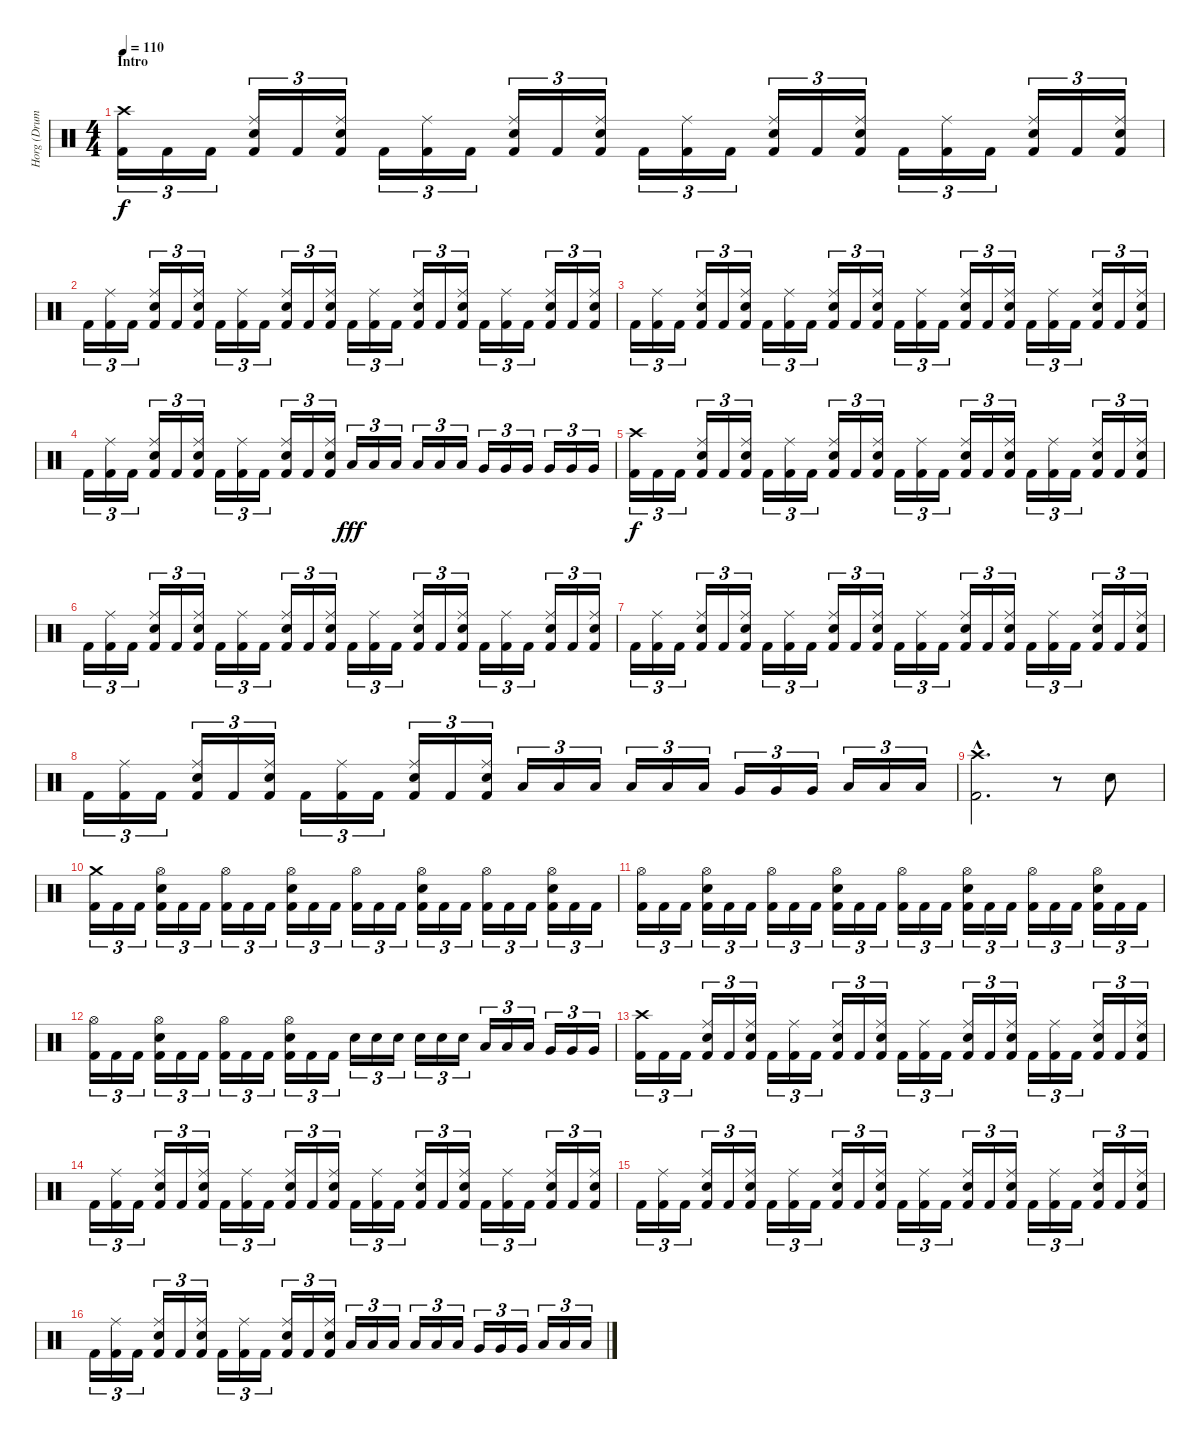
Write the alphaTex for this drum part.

\track ("Horg (Drums)" "Horg (Drum") {instrument percussion}
\staff {score}
\articulation defaults
\ts (4 4)
\section ("" "Intro")
\tempo 110
\clef neutral
\ks c
("Crash high (hit)" "Kick (hit) 2").16{tu (3 2) dy f} "Kick (hit) 2".16{tu (3 2)} "Kick (hit) 2".16{tu (3 2)} ("Ride (middle)" "Electric Snare (hit)" "Kick (hit) 2").16{tu (3 2)} "Kick (hit) 2".16{tu (3 2)} ("Ride (middle)" "Electric Snare (hit)" "Kick (hit) 2").16{tu (3 2)} "Kick (hit) 2".16{tu (3 2)} ("Ride (middle)" "Kick (hit) 2").16{tu (3 2)} "Kick (hit) 2".16{tu (3 2)} ("Ride (middle)" "Electric Snare (hit)" "Kick (hit) 2").16{tu (3 2)} "Kick (hit) 2".16{tu (3 2)} ("Ride (middle)" "Electric Snare (hit)" "Kick (hit) 2").16{tu (3 2)} "Kick (hit) 2".16{tu (3 2)} ("Ride (middle)" "Kick (hit) 2").16{tu (3 2)} "Kick (hit) 2".16{tu (3 2)} ("Ride (middle)" "Electric Snare (hit)" "Kick (hit) 2").16{tu (3 2)} "Kick (hit) 2".16{tu (3 2)} ("Ride (middle)" "Electric Snare (hit)" "Kick (hit) 2").16{tu (3 2)} "Kick (hit) 2".16{tu (3 2)} ("Ride (middle)" "Kick (hit) 2").16{tu (3 2)} "Kick (hit) 2".16{tu (3 2)} ("Ride (middle)" "Electric Snare (hit)" "Kick (hit) 2").16{tu (3 2)} "Kick (hit) 2".16{tu (3 2)} ("Ride (middle)" "Electric Snare (hit)" "Kick (hit) 2").16{tu (3 2)} |
"Kick (hit) 2".16{tu (3 2)} ("Ride (middle)" "Kick (hit) 2").16{tu (3 2)} "Kick (hit) 2".16{tu (3 2)} ("Ride (middle)" "Electric Snare (hit)" "Kick (hit) 2").16{tu (3 2)} "Kick (hit) 2".16{tu (3 2)} ("Ride (middle)" "Electric Snare (hit)" "Kick (hit) 2").16{tu (3 2)} "Kick (hit) 2".16{tu (3 2)} ("Ride (middle)" "Kick (hit) 2").16{tu (3 2)} "Kick (hit) 2".16{tu (3 2)} ("Ride (middle)" "Electric Snare (hit)" "Kick (hit) 2").16{tu (3 2)} "Kick (hit) 2".16{tu (3 2)} ("Ride (middle)" "Electric Snare (hit)" "Kick (hit) 2").16{tu (3 2)} "Kick (hit) 2".16{tu (3 2)} ("Ride (middle)" "Kick (hit) 2").16{tu (3 2)} "Kick (hit) 2".16{tu (3 2)} ("Ride (middle)" "Electric Snare (hit)" "Kick (hit) 2").16{tu (3 2)} "Kick (hit) 2".16{tu (3 2)} ("Ride (middle)" "Electric Snare (hit)" "Kick (hit) 2").16{tu (3 2)} "Kick (hit) 2".16{tu (3 2)} ("Ride (middle)" "Kick (hit) 2").16{tu (3 2)} "Kick (hit) 2".16{tu (3 2)} ("Ride (middle)" "Electric Snare (hit)" "Kick (hit) 2").16{tu (3 2)} "Kick (hit) 2".16{tu (3 2)} ("Ride (middle)" "Electric Snare (hit)" "Kick (hit) 2").16{tu (3 2)} |
"Kick (hit) 2".16{tu (3 2)} ("Ride (middle)" "Kick (hit) 2").16{tu (3 2)} "Kick (hit) 2".16{tu (3 2)} ("Ride (middle)" "Electric Snare (hit)" "Kick (hit) 2").16{tu (3 2)} "Kick (hit) 2".16{tu (3 2)} ("Ride (middle)" "Electric Snare (hit)" "Kick (hit) 2").16{tu (3 2)} "Kick (hit) 2".16{tu (3 2)} ("Ride (middle)" "Kick (hit) 2").16{tu (3 2)} "Kick (hit) 2".16{tu (3 2)} ("Ride (middle)" "Electric Snare (hit)" "Kick (hit) 2").16{tu (3 2)} "Kick (hit) 2".16{tu (3 2)} ("Ride (middle)" "Electric Snare (hit)" "Kick (hit) 2").16{tu (3 2)} "Kick (hit) 2".16{tu (3 2)} ("Ride (middle)" "Kick (hit) 2").16{tu (3 2)} "Kick (hit) 2".16{tu (3 2)} ("Ride (middle)" "Electric Snare (hit)" "Kick (hit) 2").16{tu (3 2)} "Kick (hit) 2".16{tu (3 2)} ("Ride (middle)" "Electric Snare (hit)" "Kick (hit) 2").16{tu (3 2)} "Kick (hit) 2".16{tu (3 2)} ("Ride (middle)" "Kick (hit) 2").16{tu (3 2)} "Kick (hit) 2".16{tu (3 2)} ("Ride (middle)" "Electric Snare (hit)" "Kick (hit) 2").16{tu (3 2)} "Kick (hit) 2".16{tu (3 2)} ("Ride (middle)" "Electric Snare (hit)" "Kick (hit) 2").16{tu (3 2)} |
"Kick (hit) 2".16{tu (3 2)} ("Ride (middle)" "Kick (hit) 2").16{tu (3 2)} "Kick (hit) 2".16{tu (3 2)} ("Ride (middle)" "Electric Snare (hit)" "Kick (hit) 2").16{tu (3 2)} "Kick (hit) 2".16{tu (3 2)} ("Ride (middle)" "Electric Snare (hit)" "Kick (hit) 2").16{tu (3 2)} "Kick (hit) 2".16{tu (3 2)} ("Ride (middle)" "Kick (hit) 2").16{tu (3 2)} "Kick (hit) 2".16{tu (3 2)} ("Ride (middle)" "Electric Snare (hit)" "Kick (hit) 2").16{tu (3 2)} "Kick (hit) 2".16{tu (3 2)} ("Ride (middle)" "Electric Snare (hit)" "Kick (hit) 2").16{tu (3 2)} "Low Tom (hit)".16{tu (3 2) dy fff} "Low Tom (hit)".16{tu (3 2)} "Low Tom (hit)".16{tu (3 2)} "Low Tom (hit)".16{tu (3 2)} "Low Tom (hit)".16{tu (3 2)} "Low Tom (hit)".16{tu (3 2)} "Very Low Tom (hit)".16{tu (3 2)} "Very Low Tom (hit)".16{tu (3 2)} "Very Low Tom (hit)".16{tu (3 2)} "Very Low Tom (hit)".16{tu (3 2)} "Very Low Tom (hit)".16{tu (3 2)} "Very Low Tom (hit)".16{tu (3 2)} |
("Crash high (hit)" "Kick (hit) 2").16{tu (3 2) dy f} "Kick (hit) 2".16{tu (3 2)} "Kick (hit) 2".16{tu (3 2)} ("Ride (middle)" "Electric Snare (hit)" "Kick (hit) 2").16{tu (3 2)} "Kick (hit) 2".16{tu (3 2)} ("Ride (middle)" "Electric Snare (hit)" "Kick (hit) 2").16{tu (3 2)} "Kick (hit) 2".16{tu (3 2)} ("Ride (middle)" "Kick (hit) 2").16{tu (3 2)} "Kick (hit) 2".16{tu (3 2)} ("Ride (middle)" "Electric Snare (hit)" "Kick (hit) 2").16{tu (3 2)} "Kick (hit) 2".16{tu (3 2)} ("Ride (middle)" "Electric Snare (hit)" "Kick (hit) 2").16{tu (3 2)} "Kick (hit) 2".16{tu (3 2)} ("Ride (middle)" "Kick (hit) 2").16{tu (3 2)} "Kick (hit) 2".16{tu (3 2)} ("Ride (middle)" "Electric Snare (hit)" "Kick (hit) 2").16{tu (3 2)} "Kick (hit) 2".16{tu (3 2)} ("Ride (middle)" "Electric Snare (hit)" "Kick (hit) 2").16{tu (3 2)} "Kick (hit) 2".16{tu (3 2)} ("Ride (middle)" "Kick (hit) 2").16{tu (3 2)} "Kick (hit) 2".16{tu (3 2)} ("Ride (middle)" "Electric Snare (hit)" "Kick (hit) 2").16{tu (3 2)} "Kick (hit) 2".16{tu (3 2)} ("Ride (middle)" "Electric Snare (hit)" "Kick (hit) 2").16{tu (3 2)} |
"Kick (hit) 2".16{tu (3 2)} ("Ride (middle)" "Kick (hit) 2").16{tu (3 2)} "Kick (hit) 2".16{tu (3 2)} ("Ride (middle)" "Electric Snare (hit)" "Kick (hit) 2").16{tu (3 2)} "Kick (hit) 2".16{tu (3 2)} ("Ride (middle)" "Electric Snare (hit)" "Kick (hit) 2").16{tu (3 2)} "Kick (hit) 2".16{tu (3 2)} ("Ride (middle)" "Kick (hit) 2").16{tu (3 2)} "Kick (hit) 2".16{tu (3 2)} ("Ride (middle)" "Electric Snare (hit)" "Kick (hit) 2").16{tu (3 2)} "Kick (hit) 2".16{tu (3 2)} ("Ride (middle)" "Electric Snare (hit)" "Kick (hit) 2").16{tu (3 2)} "Kick (hit) 2".16{tu (3 2)} ("Ride (middle)" "Kick (hit) 2").16{tu (3 2)} "Kick (hit) 2".16{tu (3 2)} ("Ride (middle)" "Electric Snare (hit)" "Kick (hit) 2").16{tu (3 2)} "Kick (hit) 2".16{tu (3 2)} ("Ride (middle)" "Electric Snare (hit)" "Kick (hit) 2").16{tu (3 2)} "Kick (hit) 2".16{tu (3 2)} ("Ride (middle)" "Kick (hit) 2").16{tu (3 2)} "Kick (hit) 2".16{tu (3 2)} ("Ride (middle)" "Electric Snare (hit)" "Kick (hit) 2").16{tu (3 2)} "Kick (hit) 2".16{tu (3 2)} ("Ride (middle)" "Electric Snare (hit)" "Kick (hit) 2").16{tu (3 2)} |
"Kick (hit) 2".16{tu (3 2)} ("Ride (middle)" "Kick (hit) 2").16{tu (3 2)} "Kick (hit) 2".16{tu (3 2)} ("Ride (middle)" "Electric Snare (hit)" "Kick (hit) 2").16{tu (3 2)} "Kick (hit) 2".16{tu (3 2)} ("Ride (middle)" "Electric Snare (hit)" "Kick (hit) 2").16{tu (3 2)} "Kick (hit) 2".16{tu (3 2)} ("Ride (middle)" "Kick (hit) 2").16{tu (3 2)} "Kick (hit) 2".16{tu (3 2)} ("Ride (middle)" "Electric Snare (hit)" "Kick (hit) 2").16{tu (3 2)} "Kick (hit) 2".16{tu (3 2)} ("Ride (middle)" "Electric Snare (hit)" "Kick (hit) 2").16{tu (3 2)} "Kick (hit) 2".16{tu (3 2)} ("Ride (middle)" "Kick (hit) 2").16{tu (3 2)} "Kick (hit) 2".16{tu (3 2)} ("Ride (middle)" "Electric Snare (hit)" "Kick (hit) 2").16{tu (3 2)} "Kick (hit) 2".16{tu (3 2)} ("Ride (middle)" "Electric Snare (hit)" "Kick (hit) 2").16{tu (3 2)} "Kick (hit) 2".16{tu (3 2)} ("Ride (middle)" "Kick (hit) 2").16{tu (3 2)} "Kick (hit) 2".16{tu (3 2)} ("Ride (middle)" "Electric Snare (hit)" "Kick (hit) 2").16{tu (3 2)} "Kick (hit) 2".16{tu (3 2)} ("Ride (middle)" "Electric Snare (hit)" "Kick (hit) 2").16{tu (3 2)} |
"Kick (hit) 2".16{tu (3 2)} ("Ride (middle)" "Kick (hit) 2").16{tu (3 2)} "Kick (hit) 2".16{tu (3 2)} ("Ride (middle)" "Electric Snare (hit)" "Kick (hit) 2").16{tu (3 2)} "Kick (hit) 2".16{tu (3 2)} ("Ride (middle)" "Electric Snare (hit)" "Kick (hit) 2").16{tu (3 2)} "Kick (hit) 2".16{tu (3 2)} ("Ride (middle)" "Kick (hit) 2").16{tu (3 2)} "Kick (hit) 2".16{tu (3 2)} ("Ride (middle)" "Electric Snare (hit)" "Kick (hit) 2").16{tu (3 2)} "Kick (hit) 2".16{tu (3 2)} ("Ride (middle)" "Electric Snare (hit)" "Kick (hit) 2").16{tu (3 2)} "Low Tom (hit)".16{tu (3 2)} "Low Tom (hit)".16{tu (3 2)} "Low Tom (hit)".16{tu (3 2)} "Low Tom (hit)".16{tu (3 2)} "Low Tom (hit)".16{tu (3 2)} "Low Tom (hit)".16{tu (3 2)} "Very Low Tom (hit)".16{tu (3 2)} "Very Low Tom (hit)".16{tu (3 2)} "Very Low Tom (hit)".16{tu (3 2)} "Low Floor Tom (hit)".16{tu (3 2)} "Low Floor Tom (hit)".16{tu (3 2)} "Low Floor Tom (hit)".16{tu (3 2)} |
("Crash high (hit)"{hac} "Kick (hit) 2"{hac}).2{d} r.8 "Electric Snare (hit)".8 |
("Crash medium (hit)" "Kick (hit) 2").16{tu (3 2)} "Kick (hit) 2".16{tu (3 2)} "Kick (hit) 2".16{tu (3 2)} ("Hi-Hat (open)" "Electric Snare (hit)" "Kick (hit) 2").16{tu (3 2)} "Kick (hit) 2".16{tu (3 2)} "Kick (hit) 2".16{tu (3 2)} ("Hi-Hat (open)" "Kick (hit) 2").16{tu (3 2)} "Kick (hit) 2".16{tu (3 2)} "Kick (hit) 2".16{tu (3 2)} ("Hi-Hat (open)" "Electric Snare (hit)" "Kick (hit) 2").16{tu (3 2)} "Kick (hit) 2".16{tu (3 2)} "Kick (hit) 2".16{tu (3 2)} ("Hi-Hat (open)" "Kick (hit) 2").16{tu (3 2)} "Kick (hit) 2".16{tu (3 2)} "Kick (hit) 2".16{tu (3 2)} ("Hi-Hat (open)" "Electric Snare (hit)" "Kick (hit) 2").16{tu (3 2)} "Kick (hit) 2".16{tu (3 2)} "Kick (hit) 2".16{tu (3 2)} ("Hi-Hat (open)" "Kick (hit) 2").16{tu (3 2)} "Kick (hit) 2".16{tu (3 2)} "Kick (hit) 2".16{tu (3 2)} ("Hi-Hat (open)" "Electric Snare (hit)" "Kick (hit) 2").16{tu (3 2)} "Kick (hit) 2".16{tu (3 2)} "Kick (hit) 2".16{tu (3 2)} |
("Hi-Hat (open)" "Kick (hit) 2").16{tu (3 2)} "Kick (hit) 2".16{tu (3 2)} "Kick (hit) 2".16{tu (3 2)} ("Hi-Hat (open)" "Electric Snare (hit)" "Kick (hit) 2").16{tu (3 2)} "Kick (hit) 2".16{tu (3 2)} "Kick (hit) 2".16{tu (3 2)} ("Hi-Hat (open)" "Kick (hit) 2").16{tu (3 2)} "Kick (hit) 2".16{tu (3 2)} "Kick (hit) 2".16{tu (3 2)} ("Hi-Hat (open)" "Electric Snare (hit)" "Kick (hit) 2").16{tu (3 2)} "Kick (hit) 2".16{tu (3 2)} "Kick (hit) 2".16{tu (3 2)} ("Hi-Hat (open)" "Kick (hit) 2").16{tu (3 2)} "Kick (hit) 2".16{tu (3 2)} "Kick (hit) 2".16{tu (3 2)} ("Hi-Hat (open)" "Electric Snare (hit)" "Kick (hit) 2").16{tu (3 2)} "Kick (hit) 2".16{tu (3 2)} "Kick (hit) 2".16{tu (3 2)} ("Hi-Hat (open)" "Kick (hit) 2").16{tu (3 2)} "Kick (hit) 2".16{tu (3 2)} "Kick (hit) 2".16{tu (3 2)} ("Hi-Hat (open)" "Electric Snare (hit)" "Kick (hit) 2").16{tu (3 2)} "Kick (hit) 2".16{tu (3 2)} "Kick (hit) 2".16{tu (3 2)} |
("Hi-Hat (open)" "Kick (hit) 2").16{tu (3 2)} "Kick (hit) 2".16{tu (3 2)} "Kick (hit) 2".16{tu (3 2)} ("Hi-Hat (open)" "Electric Snare (hit)" "Kick (hit) 2").16{tu (3 2)} "Kick (hit) 2".16{tu (3 2)} "Kick (hit) 2".16{tu (3 2)} ("Hi-Hat (open)" "Kick (hit) 2").16{tu (3 2)} "Kick (hit) 2".16{tu (3 2)} "Kick (hit) 2".16{tu (3 2)} ("Hi-Hat (open)" "Electric Snare (hit)" "Kick (hit) 2").16{tu (3 2)} "Kick (hit) 2".16{tu (3 2)} "Kick (hit) 2".16{tu (3 2)} "Electric Snare (hit)".16{tu (3 2)} "Electric Snare (hit)".16{tu (3 2)} "Electric Snare (hit)".16{tu (3 2)} "Electric Snare (hit)".16{tu (3 2)} "Electric Snare (hit)".16{tu (3 2)} "Electric Snare (hit)".16{tu (3 2)} "Low Tom (hit)".16{tu (3 2)} "Low Tom (hit)".16{tu (3 2)} "Low Tom (hit)".16{tu (3 2)} "Very Low Tom (hit)".16{tu (3 2)} "Very Low Tom (hit)".16{tu (3 2)} "Very Low Tom (hit)".16{tu (3 2)} |
("Crash high (hit)" "Kick (hit) 2").16{tu (3 2)} "Kick (hit) 2".16{tu (3 2)} "Kick (hit) 2".16{tu (3 2)} ("Ride (middle)" "Electric Snare (hit)" "Kick (hit) 2").16{tu (3 2)} "Kick (hit) 2".16{tu (3 2)} ("Ride (middle)" "Electric Snare (hit)" "Kick (hit) 2").16{tu (3 2)} "Kick (hit) 2".16{tu (3 2)} ("Ride (middle)" "Kick (hit) 2").16{tu (3 2)} "Kick (hit) 2".16{tu (3 2)} ("Ride (middle)" "Electric Snare (hit)" "Kick (hit) 2").16{tu (3 2)} "Kick (hit) 2".16{tu (3 2)} ("Ride (middle)" "Electric Snare (hit)" "Kick (hit) 2").16{tu (3 2)} "Kick (hit) 2".16{tu (3 2)} ("Ride (middle)" "Kick (hit) 2").16{tu (3 2)} "Kick (hit) 2".16{tu (3 2)} ("Ride (middle)" "Electric Snare (hit)" "Kick (hit) 2").16{tu (3 2)} "Kick (hit) 2".16{tu (3 2)} ("Ride (middle)" "Electric Snare (hit)" "Kick (hit) 2").16{tu (3 2)} "Kick (hit) 2".16{tu (3 2)} ("Ride (middle)" "Kick (hit) 2").16{tu (3 2)} "Kick (hit) 2".16{tu (3 2)} ("Ride (middle)" "Electric Snare (hit)" "Kick (hit) 2").16{tu (3 2)} "Kick (hit) 2".16{tu (3 2)} ("Ride (middle)" "Electric Snare (hit)" "Kick (hit) 2").16{tu (3 2)} |
"Kick (hit) 2".16{tu (3 2)} ("Ride (middle)" "Kick (hit) 2").16{tu (3 2)} "Kick (hit) 2".16{tu (3 2)} ("Ride (middle)" "Electric Snare (hit)" "Kick (hit) 2").16{tu (3 2)} "Kick (hit) 2".16{tu (3 2)} ("Ride (middle)" "Electric Snare (hit)" "Kick (hit) 2").16{tu (3 2)} "Kick (hit) 2".16{tu (3 2)} ("Ride (middle)" "Kick (hit) 2").16{tu (3 2)} "Kick (hit) 2".16{tu (3 2)} ("Ride (middle)" "Electric Snare (hit)" "Kick (hit) 2").16{tu (3 2)} "Kick (hit) 2".16{tu (3 2)} ("Ride (middle)" "Electric Snare (hit)" "Kick (hit) 2").16{tu (3 2)} "Kick (hit) 2".16{tu (3 2)} ("Ride (middle)" "Kick (hit) 2").16{tu (3 2)} "Kick (hit) 2".16{tu (3 2)} ("Ride (middle)" "Electric Snare (hit)" "Kick (hit) 2").16{tu (3 2)} "Kick (hit) 2".16{tu (3 2)} ("Ride (middle)" "Electric Snare (hit)" "Kick (hit) 2").16{tu (3 2)} "Kick (hit) 2".16{tu (3 2)} ("Ride (middle)" "Kick (hit) 2").16{tu (3 2)} "Kick (hit) 2".16{tu (3 2)} ("Ride (middle)" "Electric Snare (hit)" "Kick (hit) 2").16{tu (3 2)} "Kick (hit) 2".16{tu (3 2)} ("Ride (middle)" "Electric Snare (hit)" "Kick (hit) 2").16{tu (3 2)} |
"Kick (hit) 2".16{tu (3 2)} ("Ride (middle)" "Kick (hit) 2").16{tu (3 2)} "Kick (hit) 2".16{tu (3 2)} ("Ride (middle)" "Electric Snare (hit)" "Kick (hit) 2").16{tu (3 2)} "Kick (hit) 2".16{tu (3 2)} ("Ride (middle)" "Electric Snare (hit)" "Kick (hit) 2").16{tu (3 2)} "Kick (hit) 2".16{tu (3 2)} ("Ride (middle)" "Kick (hit) 2").16{tu (3 2)} "Kick (hit) 2".16{tu (3 2)} ("Ride (middle)" "Electric Snare (hit)" "Kick (hit) 2").16{tu (3 2)} "Kick (hit) 2".16{tu (3 2)} ("Ride (middle)" "Electric Snare (hit)" "Kick (hit) 2").16{tu (3 2)} "Kick (hit) 2".16{tu (3 2)} ("Ride (middle)" "Kick (hit) 2").16{tu (3 2)} "Kick (hit) 2".16{tu (3 2)} ("Ride (middle)" "Electric Snare (hit)" "Kick (hit) 2").16{tu (3 2)} "Kick (hit) 2".16{tu (3 2)} ("Ride (middle)" "Electric Snare (hit)" "Kick (hit) 2").16{tu (3 2)} "Kick (hit) 2".16{tu (3 2)} ("Ride (middle)" "Kick (hit) 2").16{tu (3 2)} "Kick (hit) 2".16{tu (3 2)} ("Ride (middle)" "Electric Snare (hit)" "Kick (hit) 2").16{tu (3 2)} "Kick (hit) 2".16{tu (3 2)} ("Ride (middle)" "Electric Snare (hit)" "Kick (hit) 2").16{tu (3 2)} |
"Kick (hit) 2".16{tu (3 2)} ("Ride (middle)" "Kick (hit) 2").16{tu (3 2)} "Kick (hit) 2".16{tu (3 2)} ("Ride (middle)" "Electric Snare (hit)" "Kick (hit) 2").16{tu (3 2)} "Kick (hit) 2".16{tu (3 2)} ("Ride (middle)" "Electric Snare (hit)" "Kick (hit) 2").16{tu (3 2)} "Kick (hit) 2".16{tu (3 2)} ("Ride (middle)" "Kick (hit) 2").16{tu (3 2)} "Kick (hit) 2".16{tu (3 2)} ("Ride (middle)" "Electric Snare (hit)" "Kick (hit) 2").16{tu (3 2)} "Kick (hit) 2".16{tu (3 2)} ("Ride (middle)" "Electric Snare (hit)" "Kick (hit) 2").16{tu (3 2)} "Low Tom (hit)".16{tu (3 2)} "Low Tom (hit)".16{tu (3 2)} "Low Tom (hit)".16{tu (3 2)} "Low Tom (hit)".16{tu (3 2)} "Low Tom (hit)".16{tu (3 2)} "Low Tom (hit)".16{tu (3 2)} "Very Low Tom (hit)".16{tu (3 2)} "Very Low Tom (hit)".16{tu (3 2)} "Very Low Tom (hit)".16{tu (3 2)} "Low Floor Tom (hit)".16{tu (3 2)} "Low Floor Tom (hit)".16{tu (3 2)} "Low Floor Tom (hit)".16{tu (3 2)}
